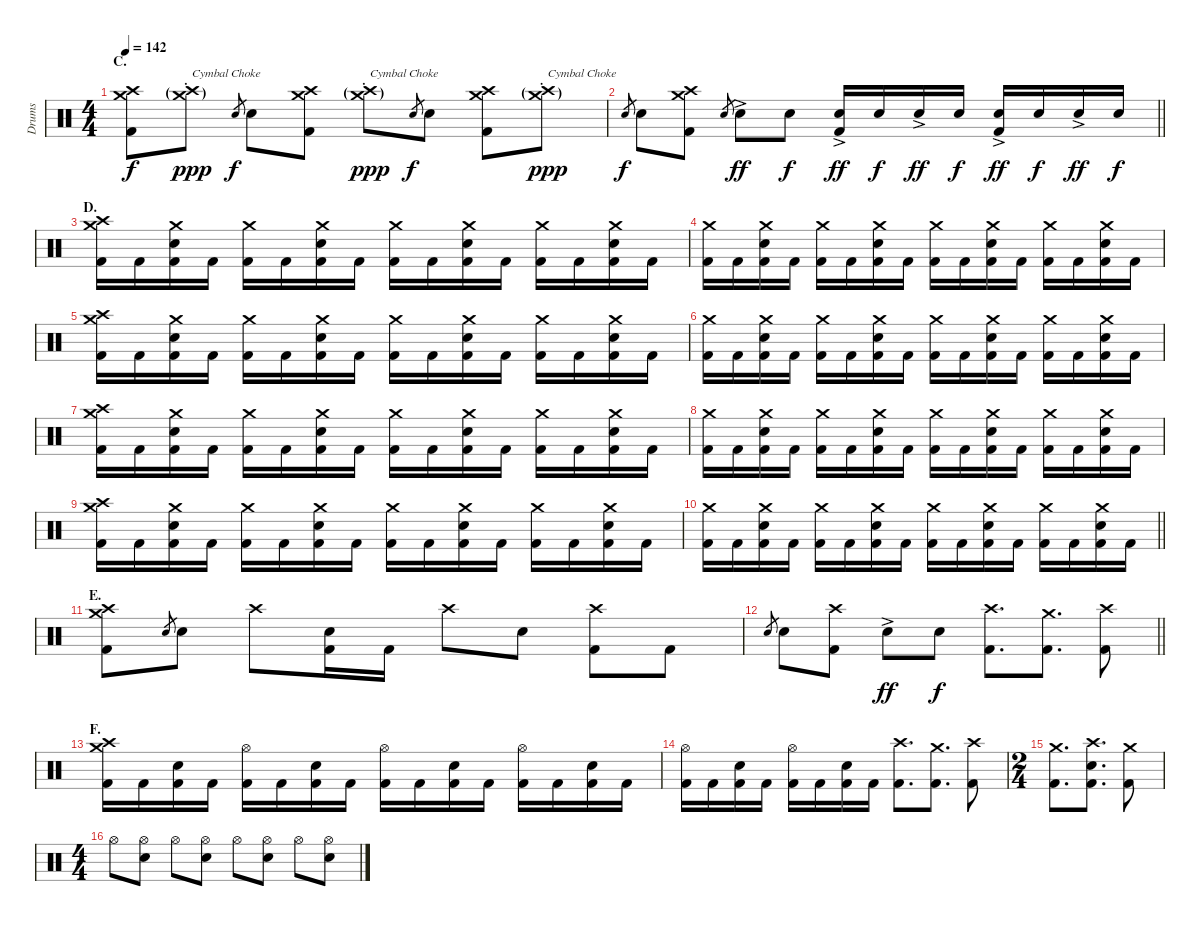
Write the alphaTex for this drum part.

\track ("Drums" "Drums") {instrument percussion}
\staff {score}
\articulation defaults
\ts (4 4)
\section ("" "C.")
\tempo 142
\clef neutral
\ks c
("Crash medium (hit)" "Crash high (hit)" "Kick (hit) 2").8{dy f} ("Crash medium (hit)"{g st} "Crash high (hit)"{g st}).8{txt "Cymbal Choke" dy ppp} "Electric Snare (hit)".8{gr dy f} "Electric Snare (hit)".8 ("Crash medium (hit)" "Crash high (hit)" "Kick (hit) 2").8 ("Crash medium (hit)"{g st} "Crash high (hit)"{g st}).8{txt "Cymbal Choke" dy ppp} "Electric Snare (hit)".8{gr dy f} "Electric Snare (hit)".8 ("Crash medium (hit)" "Crash high (hit)" "Kick (hit) 2").8 ("Crash medium (hit)"{g st} "Crash high (hit)"{g st}).8{txt "Cymbal Choke" dy ppp} |
\barLineRight lightlight "Electric Snare (hit)".8{gr dy f} "Electric Snare (hit)".8
("Crash medium (hit)" "Crash high (hit)" "Kick (hit) 2").8 "Electric Snare (hit)".8{gr} "Electric Snare (hit)"{ac}.8{dy ff} "Electric Snare (hit)".8{dy f} ("Electric Snare (hit)"{ac} "Kick (hit) 2").16{dy ff} "Electric Snare (hit)".16{dy f} "Electric Snare (hit)"{ac}.16{dy ff} "Electric Snare (hit)".16{dy f} ("Electric Snare (hit)"{ac} "Kick (hit) 2").16{dy ff} "Electric Snare (hit)".16{dy f} "Electric Snare (hit)"{ac}.16{dy ff} "Electric Snare (hit)".16{dy f} |
\section ("" "D.")
("Crash medium (hit)" "Crash high (hit)" "Kick (hit) 2").16 "Kick (hit) 2".16 ("Crash medium (hit)" "Electric Snare (hit)" "Kick (hit) 2").16 "Kick (hit) 2".16 ("Crash medium (hit)" "Kick (hit) 2").16 "Kick (hit) 2".16 ("Crash medium (hit)" "Electric Snare (hit)" "Kick (hit) 2").16 "Kick (hit) 2".16 ("Crash medium (hit)" "Kick (hit) 2").16 "Kick (hit) 2".16 ("Crash medium (hit)" "Electric Snare (hit)" "Kick (hit) 2").16 "Kick (hit) 2".16 ("Crash medium (hit)" "Kick (hit) 2").16 "Kick (hit) 2".16 ("Crash medium (hit)" "Electric Snare (hit)" "Kick (hit) 2").16 "Kick (hit) 2".16 |
("Crash medium (hit)" "Kick (hit) 2").16 "Kick (hit) 2".16 ("Crash medium (hit)" "Electric Snare (hit)" "Kick (hit) 2").16 "Kick (hit) 2".16 ("Crash medium (hit)" "Kick (hit) 2").16 "Kick (hit) 2".16 ("Crash medium (hit)" "Electric Snare (hit)" "Kick (hit) 2").16 "Kick (hit) 2".16 ("Crash medium (hit)" "Kick (hit) 2").16 "Kick (hit) 2".16 ("Crash medium (hit)" "Electric Snare (hit)" "Kick (hit) 2").16 "Kick (hit) 2".16 ("Crash medium (hit)" "Kick (hit) 2").16 "Kick (hit) 2".16 ("Crash medium (hit)" "Electric Snare (hit)" "Kick (hit) 2").16 "Kick (hit) 2".16 |
("Crash medium (hit)" "Crash high (hit)" "Kick (hit) 2").16 "Kick (hit) 2".16 ("Crash medium (hit)" "Electric Snare (hit)" "Kick (hit) 2").16 "Kick (hit) 2".16 ("Crash medium (hit)" "Kick (hit) 2").16 "Kick (hit) 2".16 ("Crash medium (hit)" "Electric Snare (hit)" "Kick (hit) 2").16 "Kick (hit) 2".16 ("Crash medium (hit)" "Kick (hit) 2").16 "Kick (hit) 2".16 ("Crash medium (hit)" "Electric Snare (hit)" "Kick (hit) 2").16 "Kick (hit) 2".16 ("Crash medium (hit)" "Kick (hit) 2").16 "Kick (hit) 2".16 ("Crash medium (hit)" "Electric Snare (hit)" "Kick (hit) 2").16 "Kick (hit) 2".16 |
("Crash medium (hit)" "Kick (hit) 2").16 "Kick (hit) 2".16 ("Crash medium (hit)" "Electric Snare (hit)" "Kick (hit) 2").16 "Kick (hit) 2".16 ("Crash medium (hit)" "Kick (hit) 2").16 "Kick (hit) 2".16 ("Crash medium (hit)" "Electric Snare (hit)" "Kick (hit) 2").16 "Kick (hit) 2".16 ("Crash medium (hit)" "Kick (hit) 2").16 "Kick (hit) 2".16 ("Crash medium (hit)" "Electric Snare (hit)" "Kick (hit) 2").16 "Kick (hit) 2".16 ("Crash medium (hit)" "Kick (hit) 2").16 "Kick (hit) 2".16 ("Crash medium (hit)" "Electric Snare (hit)" "Kick (hit) 2").16 "Kick (hit) 2".16 |
("Crash medium (hit)" "Crash high (hit)" "Kick (hit) 2").16 "Kick (hit) 2".16 ("Crash medium (hit)" "Electric Snare (hit)" "Kick (hit) 2").16 "Kick (hit) 2".16 ("Crash medium (hit)" "Kick (hit) 2").16 "Kick (hit) 2".16 ("Crash medium (hit)" "Electric Snare (hit)" "Kick (hit) 2").16 "Kick (hit) 2".16 ("Crash medium (hit)" "Kick (hit) 2").16 "Kick (hit) 2".16 ("Crash medium (hit)" "Electric Snare (hit)" "Kick (hit) 2").16 "Kick (hit) 2".16 ("Crash medium (hit)" "Kick (hit) 2").16 "Kick (hit) 2".16 ("Crash medium (hit)" "Electric Snare (hit)" "Kick (hit) 2").16 "Kick (hit) 2".16 |
("Crash medium (hit)" "Kick (hit) 2").16 "Kick (hit) 2".16 ("Crash medium (hit)" "Electric Snare (hit)" "Kick (hit) 2").16 "Kick (hit) 2".16 ("Crash medium (hit)" "Kick (hit) 2").16 "Kick (hit) 2".16 ("Crash medium (hit)" "Electric Snare (hit)" "Kick (hit) 2").16 "Kick (hit) 2".16 ("Crash medium (hit)" "Kick (hit) 2").16 "Kick (hit) 2".16 ("Crash medium (hit)" "Electric Snare (hit)" "Kick (hit) 2").16 "Kick (hit) 2".16 ("Crash medium (hit)" "Kick (hit) 2").16 "Kick (hit) 2".16 ("Crash medium (hit)" "Electric Snare (hit)" "Kick (hit) 2").16 "Kick (hit) 2".16 |
("Crash medium (hit)" "Crash high (hit)" "Kick (hit) 2").16 "Kick (hit) 2".16 ("Crash medium (hit)" "Electric Snare (hit)" "Kick (hit) 2").16 "Kick (hit) 2".16 ("Crash medium (hit)" "Kick (hit) 2").16 "Kick (hit) 2".16 ("Crash medium (hit)" "Electric Snare (hit)" "Kick (hit) 2").16 "Kick (hit) 2".16 ("Crash medium (hit)" "Kick (hit) 2").16 "Kick (hit) 2".16 ("Crash medium (hit)" "Electric Snare (hit)" "Kick (hit) 2").16 "Kick (hit) 2".16 ("Crash medium (hit)" "Kick (hit) 2").16 "Kick (hit) 2".16 ("Crash medium (hit)" "Electric Snare (hit)" "Kick (hit) 2").16 "Kick (hit) 2".16 |
\barLineRight lightlight
("Crash medium (hit)" "Kick (hit) 2").16 "Kick (hit) 2".16 ("Crash medium (hit)" "Electric Snare (hit)" "Kick (hit) 2").16 "Kick (hit) 2".16 ("Crash medium (hit)" "Kick (hit) 2").16 "Kick (hit) 2".16 ("Crash medium (hit)" "Electric Snare (hit)" "Kick (hit) 2").16 "Kick (hit) 2".16 ("Crash medium (hit)" "Kick (hit) 2").16 "Kick (hit) 2".16 ("Crash medium (hit)" "Electric Snare (hit)" "Kick (hit) 2").16 "Kick (hit) 2".16 ("Crash medium (hit)" "Kick (hit) 2").16 "Kick (hit) 2".16 ("Crash medium (hit)" "Electric Snare (hit)" "Kick (hit) 2").16 "Kick (hit) 2".16 |
\section ("" "E.")
("Crash medium (hit)" "Crash high (hit)" "Kick (hit) 2").8 "Electric Snare (hit)".8{gr} "Electric Snare (hit)".8 "Crash high (hit)".8 ("Electric Snare (hit)" "Kick (hit) 2").16 "Kick (hit) 2".16 "Crash high (hit)".8 "Electric Snare (hit)".8 ("Crash high (hit)" "Kick (hit) 2").8 "Kick (hit) 2".8 |
\barLineRight lightlight "Electric Snare (hit)".8{gr} "Electric Snare (hit)".8
("Crash high (hit)" "Kick (hit) 2").8 "Electric Snare (hit)"{ac}.8{dy ff} "Electric Snare (hit)".8{dy f} ("Crash high (hit)" "Kick (hit) 2").8{d} ("Crash medium (hit)" "Kick (hit) 2").8{d} ("Crash high (hit)" "Kick (hit) 2").8 |
\section ("" "F.")
("Crash medium (hit)" "Crash high (hit)" "Kick (hit) 2").16 "Kick (hit) 2".16 ("Electric Snare (hit)" "Kick (hit) 2").16 "Kick (hit) 2".16 ("Hi-Hat (open)" "Kick (hit) 2").16 "Kick (hit) 2".16 ("Electric Snare (hit)" "Kick (hit) 2").16 "Kick (hit) 2".16 ("Hi-Hat (open)" "Kick (hit) 2").16 "Kick (hit) 2".16 ("Electric Snare (hit)" "Kick (hit) 2").16 "Kick (hit) 2".16 ("Hi-Hat (open)" "Kick (hit) 2").16 "Kick (hit) 2".16 ("Electric Snare (hit)" "Kick (hit) 2").16 "Kick (hit) 2".16 |
("Hi-Hat (open)" "Kick (hit) 2").16 "Kick (hit) 2".16 ("Electric Snare (hit)" "Kick (hit) 2").16 "Kick (hit) 2".16 ("Hi-Hat (open)" "Kick (hit) 2").16 "Kick (hit) 2".16 ("Electric Snare (hit)" "Kick (hit) 2").16 "Kick (hit) 2".16 ("Crash high (hit)" "Kick (hit) 2").8{d} ("Crash medium (hit)" "Kick (hit) 2").8{d} ("Crash high (hit)" "Kick (hit) 2").8 |
\ts (2 4)
("Crash medium (hit)" "Kick (hit) 2").8{d} ("Crash high (hit)" "Electric Snare (hit)" "Kick (hit) 2").8{d} ("Crash medium (hit)" "Kick (hit) 2").8 |
\ts (4 4)
"Hi-Hat (open)".8 ("Hi-Hat (open)" "Electric Snare (hit)").8 "Hi-Hat (open)".8 ("Hi-Hat (open)" "Electric Snare (hit)").8 "Hi-Hat (open)".8 ("Hi-Hat (open)" "Electric Snare (hit)").8 "Hi-Hat (open)".8 ("Hi-Hat (open)" "Electric Snare (hit)").8
